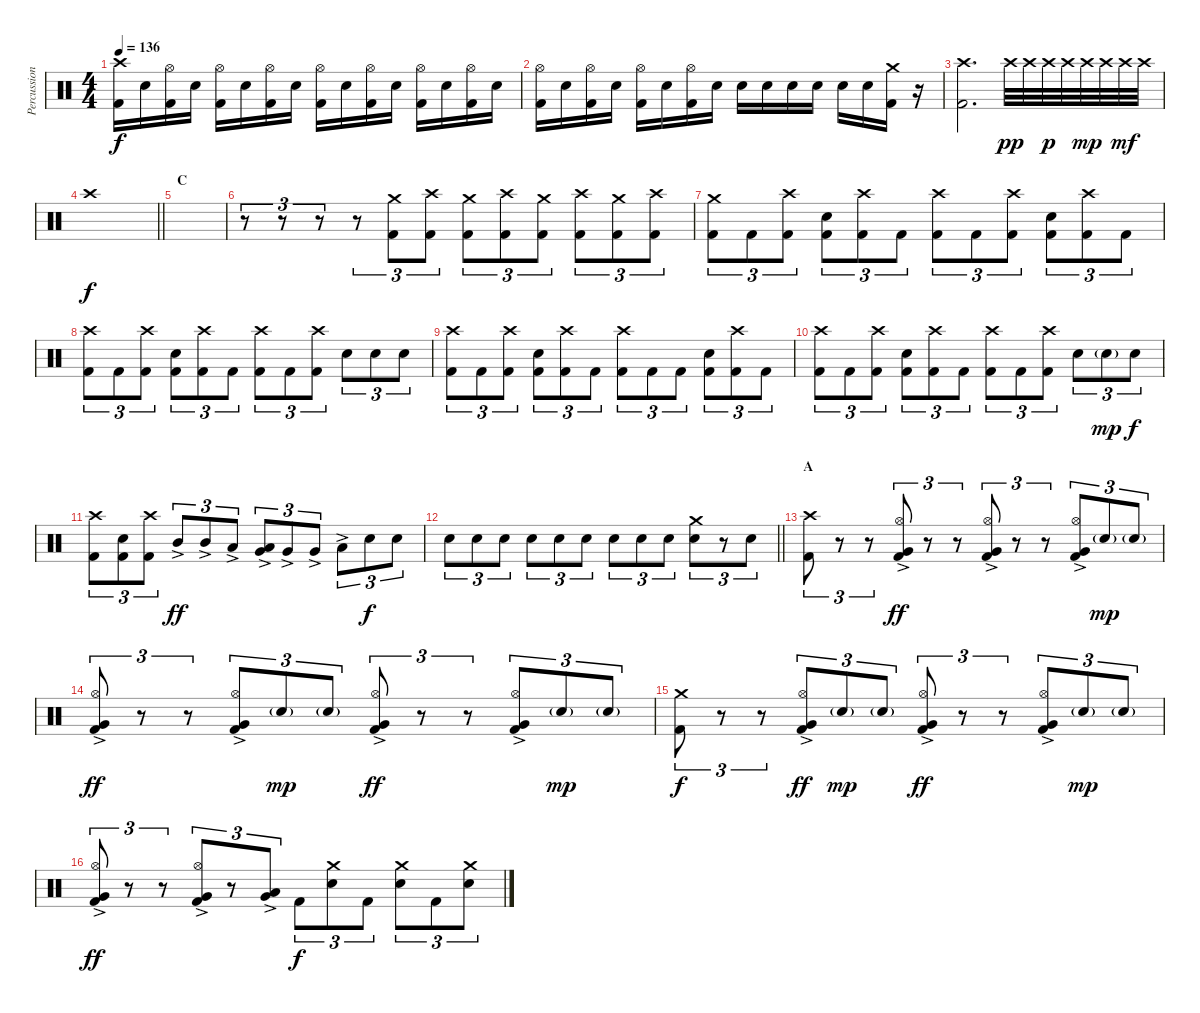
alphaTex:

\track ("Percussion" "Percussion") {instrument percussion}
\staff {score}
\articulation defaults
\ts (4 4)
\tempo 136
\clef neutral
\ks c
("Crash high (hit)" "Kick (hit) 2").16{dy f} "Electric Snare (hit)".16 ("Hi-Hat (open)" "Kick (hit) 2").16 "Electric Snare (hit)".16 ("Hi-Hat (open)" "Kick (hit) 2").16 "Electric Snare (hit)".16 ("Hi-Hat (open)" "Kick (hit) 2").16 "Electric Snare (hit)".16 ("Hi-Hat (open)" "Kick (hit) 2").16 "Electric Snare (hit)".16 ("Hi-Hat (open)" "Kick (hit) 2").16 "Electric Snare (hit)".16 ("Hi-Hat (open)" "Kick (hit) 2").16 "Electric Snare (hit)".16 ("Hi-Hat (open)" "Kick (hit) 2").16 "Electric Snare (hit)".16 |
("Hi-Hat (open)" "Kick (hit) 2").16 "Electric Snare (hit)".16 ("Hi-Hat (open)" "Kick (hit) 2").16 "Electric Snare (hit)".16 ("Hi-Hat (open)" "Kick (hit) 2").16 "Electric Snare (hit)".16 ("Hi-Hat (open)" "Kick (hit) 2").16 "Electric Snare (hit)".16 "Electric Snare (hit)".16 "Electric Snare (hit)".16 "Electric Snare (hit)".16 "Electric Snare (hit)".16 "Electric Snare (hit)".16 "Electric Snare (hit)".16 ("Crash medium (hit)" "Kick (hit) 2").16 r.16 |
("Crash high (hit)" "Kick (hit) 2").2{d} "Crash high (hit)".32{dy pp} "Crash high (hit)".32 "Crash high (hit)".32{dy p} "Crash high (hit)".32 "Crash high (hit)".32{dy mp} "Crash high (hit)".32 "Crash high (hit)".32{dy mf} "Crash high (hit)".32 |
\barLineRight lightlight "Crash high (hit)".1{dy f}
|
\section ("" "C")
|
r.8{tu (3 2)} r.8{tu (3 2)} r.8{tu (3 2)} r.8{tu (3 2)} ("Crash medium (hit)" "Kick (hit) 2").8{tu (3 2)} ("Crash high (hit)" "Kick (hit) 2").8{tu (3 2)} ("Crash medium (hit)" "Kick (hit) 2").8{tu (3 2)} ("Crash high (hit)" "Kick (hit) 2").8{tu (3 2)} ("Crash medium (hit)" "Kick (hit) 2").8{tu (3 2)} ("Crash high (hit)" "Kick (hit) 2").8{tu (3 2)} ("Crash medium (hit)" "Kick (hit) 2").8{tu (3 2)} ("Crash high (hit)" "Kick (hit) 2").8{tu (3 2)} |
("Crash medium (hit)" "Kick (hit) 2").8{tu (3 2)} "Kick (hit) 2".8{tu (3 2)} ("Crash high (hit)" "Kick (hit) 2").8{tu (3 2)} ("Electric Snare (hit)" "Kick (hit) 2").8{tu (3 2)} ("Crash high (hit)" "Kick (hit) 2").8{tu (3 2)} "Kick (hit) 2".8{tu (3 2)} ("Crash high (hit)" "Kick (hit) 2").8{tu (3 2)} "Kick (hit) 2".8{tu (3 2)} ("Crash high (hit)" "Kick (hit) 2").8{tu (3 2)} ("Electric Snare (hit)" "Kick (hit) 2").8{tu (3 2)} ("Crash high (hit)" "Kick (hit) 2").8{tu (3 2)} "Kick (hit) 2".8{tu (3 2)} |
("Crash high (hit)" "Kick (hit) 2").8{tu (3 2)} "Kick (hit) 2".8{tu (3 2)} ("Crash high (hit)" "Kick (hit) 2").8{tu (3 2)} ("Electric Snare (hit)" "Kick (hit) 2").8{tu (3 2)} ("Crash high (hit)" "Kick (hit) 2").8{tu (3 2)} "Kick (hit) 2".8{tu (3 2)} ("Crash high (hit)" "Kick (hit) 2").8{tu (3 2)} "Kick (hit) 2".8{tu (3 2)} ("Crash high (hit)" "Kick (hit) 2").8{tu (3 2)} "Electric Snare (hit)".8{tu (3 2)} "Electric Snare (hit)".8{tu (3 2)} "Electric Snare (hit)".8{tu (3 2)} |
("Crash high (hit)" "Kick (hit) 2").8{tu (3 2)} "Kick (hit) 2".8{tu (3 2)} ("Crash high (hit)" "Kick (hit) 2").8{tu (3 2)} ("Electric Snare (hit)" "Kick (hit) 2").8{tu (3 2)} ("Crash high (hit)" "Kick (hit) 2").8{tu (3 2)} "Kick (hit) 2".8{tu (3 2)} ("Crash high (hit)" "Kick (hit) 2").8{tu (3 2)} "Kick (hit) 2".8{tu (3 2)} "Kick (hit) 2".8{tu (3 2)} ("Electric Snare (hit)" "Kick (hit) 2").8{tu (3 2)} ("Crash high (hit)" "Kick (hit) 2").8{tu (3 2)} "Kick (hit) 2".8{tu (3 2)} |
("Crash high (hit)" "Kick (hit) 2").8{tu (3 2)} "Kick (hit) 2".8{tu (3 2)} ("Crash high (hit)" "Kick (hit) 2").8{tu (3 2)} ("Electric Snare (hit)" "Kick (hit) 2").8{tu (3 2)} ("Crash high (hit)" "Kick (hit) 2").8{tu (3 2)} "Kick (hit) 2".8{tu (3 2)} ("Crash high (hit)" "Kick (hit) 2").8{tu (3 2)} "Kick (hit) 2".8{tu (3 2)} ("Crash high (hit)" "Kick (hit) 2").8{tu (3 2)} "Electric Snare (hit)".8{tu (3 2)} "Electric Snare (hit)"{g}.8{tu (3 2) dy mp} "Electric Snare (hit)".8{tu (3 2) dy f} |
("Crash high (hit)" "Kick (hit) 2").8{tu (3 2)} ("Electric Snare (hit)" "Kick (hit) 2").8{tu (3 2)} ("Crash high (hit)" "Kick (hit) 2").8{tu (3 2)} "Mid Tom (hit)"{ac}.8{tu (3 2) dy ff} "Mid Tom (hit)"{ac}.8{tu (3 2)} "Low Tom (hit)"{ac}.8{tu (3 2)} ("Very Low Tom (hit)"{ac} "Low Tom (hit)"{ac}).8{tu (3 2)} "Very Low Tom (hit)"{ac}.8{tu (3 2)} "Very Low Tom (hit)"{ac}.8{tu (3 2)} "Low Floor Tom (hit)"{ac}.8{tu (3 2)} "Electric Snare (hit)".8{tu (3 2) dy f} "Electric Snare (hit)".8{tu (3 2)} |
\barLineRight lightlight "Electric Snare (hit)".8{tu (3 2)} "Electric Snare (hit)".8{tu (3 2)} "Electric Snare (hit)".8{tu (3 2)} "Electric Snare (hit)".8{tu (3 2)} "Electric Snare (hit)".8{tu (3 2)} "Electric Snare (hit)".8{tu (3 2)} "Electric Snare (hit)".8{tu (3 2)} "Electric Snare (hit)".8{tu (3 2)} "Electric Snare (hit)".8{tu (3 2)}
("Crash medium (hit)" "Electric Snare (hit)").8{tu (3 2)} r.8{tu (3 2)} "Electric Snare (hit)".8{tu (3 2)} |
\section ("" "A")
("Crash high (hit)" "Kick (hit) 2").8{tu (3 2)} r.8{tu (3 2)} r.8{tu (3 2)} ("Hi-Hat (open)" "Very Low Tom (hit)"{ac} "Kick (hit) 2").8{tu (3 2) dy ff} r.8{tu (3 2)} r.8{tu (3 2)} ("Hi-Hat (open)" "Very Low Tom (hit)"{ac} "Kick (hit) 2").8{tu (3 2)} r.8{tu (3 2)} r.8{tu (3 2)} ("Hi-Hat (open)" "Very Low Tom (hit)"{ac} "Kick (hit) 2").8{tu (3 2)} "Electric Snare (hit)"{g}.8{tu (3 2) dy mp} "Electric Snare (hit)"{g}.8{tu (3 2)} |
("Hi-Hat (open)" "Very Low Tom (hit)"{ac} "Kick (hit) 2").8{tu (3 2) dy ff} r.8{tu (3 2)} r.8{tu (3 2)} ("Hi-Hat (open)" "Very Low Tom (hit)"{ac} "Kick (hit) 2").8{tu (3 2)} "Electric Snare (hit)"{g}.8{tu (3 2) dy mp} "Electric Snare (hit)"{g}.8{tu (3 2)} ("Hi-Hat (open)" "Very Low Tom (hit)"{ac} "Kick (hit) 2").8{tu (3 2) dy ff} r.8{tu (3 2)} r.8{tu (3 2)} ("Hi-Hat (open)" "Very Low Tom (hit)"{ac} "Kick (hit) 2").8{tu (3 2)} "Electric Snare (hit)"{g}.8{tu (3 2) dy mp} "Electric Snare (hit)"{g}.8{tu (3 2)} |
("Crash medium (hit)" "Kick (hit) 2").8{tu (3 2) dy f} r.8{tu (3 2)} r.8{tu (3 2)} ("Hi-Hat (open)" "Very Low Tom (hit)"{ac} "Kick (hit) 2").8{tu (3 2) dy ff} "Electric Snare (hit)"{g}.8{tu (3 2) dy mp} "Electric Snare (hit)"{g}.8{tu (3 2)} ("Hi-Hat (open)" "Very Low Tom (hit)"{ac} "Kick (hit) 2").8{tu (3 2) dy ff} r.8{tu (3 2)} r.8{tu (3 2)} ("Hi-Hat (open)" "Very Low Tom (hit)"{ac} "Kick (hit) 2").8{tu (3 2)} "Electric Snare (hit)"{g}.8{tu (3 2) dy mp} "Electric Snare (hit)"{g}.8{tu (3 2)} |
("Hi-Hat (open)" "Very Low Tom (hit)"{ac} "Kick (hit) 2").8{tu (3 2) dy ff} r.8{tu (3 2)} r.8{tu (3 2)} ("Hi-Hat (open)" "Very Low Tom (hit)"{ac} "Kick (hit) 2").8{tu (3 2)} r.8{tu (3 2)} ("Low Tom (hit)"{ac} "Very Low Tom (hit)"{ac}).8{tu (3 2)} "Kick (hit) 2".8{tu (3 2) dy f} ("Crash medium (hit)" "Electric Snare (hit)").8{tu (3 2)} "Kick (hit) 2".8{tu (3 2)} ("Crash medium (hit)" "Electric Snare (hit)").8{tu (3 2)} "Kick (hit) 2".8{tu (3 2)} ("Crash medium (hit)" "Electric Snare (hit)").8{tu (3 2)}
